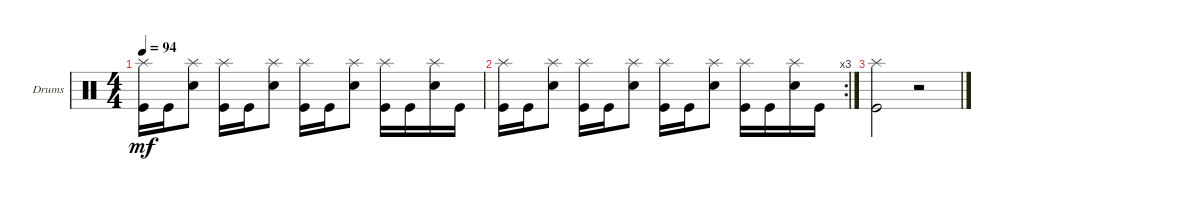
\defaultSystemsLayout 4
\bracketExtendMode groupsimilarinstruments
\firstSystemTrackNameOrientation horizontal
\otherSystemsTrackNameOrientation horizontal
\track ("Тоха" "Drums") {instrument percussion}
\staff {score}
\articulation defaults
\ts (4 4)
\tempo 94
\clef neutral
\ks c
("Kick (hit)" "Splash (hit)").16{dy mf} "Kick (hit)".16 ("Snare (hit) 2" "Splash (hit)").8 ("Kick (hit)" "Splash (hit)").16 "Kick (hit)".16 ("Snare (hit) 2" "Splash (hit)").8 ("Kick (hit)" "Splash (hit)").16 "Kick (hit)".16 ("Snare (hit) 2" "Splash (hit)").8 ("Kick (hit)" "Splash (hit)").16 "Kick (hit)".16 ("Snare (hit) 2" "Splash (hit)").16 "Kick (hit)".16 |
\rc 3
("Kick (hit)" "Splash (hit)").16 "Kick (hit)".16 ("Snare (hit) 2" "Splash (hit)").8 ("Kick (hit)" "Splash (hit)").16 "Kick (hit)".16 ("Snare (hit) 2" "Splash (hit)").8 ("Kick (hit)" "Splash (hit)").16 "Kick (hit)".16 ("Snare (hit) 2" "Splash (hit)").8 ("Kick (hit)" "Splash (hit)").16 "Kick (hit)".16 ("Snare (hit) 2" "Splash (hit)").16 "Kick (hit)".16 |
("Kick (hit)" "Splash (hit)").2 r.2
